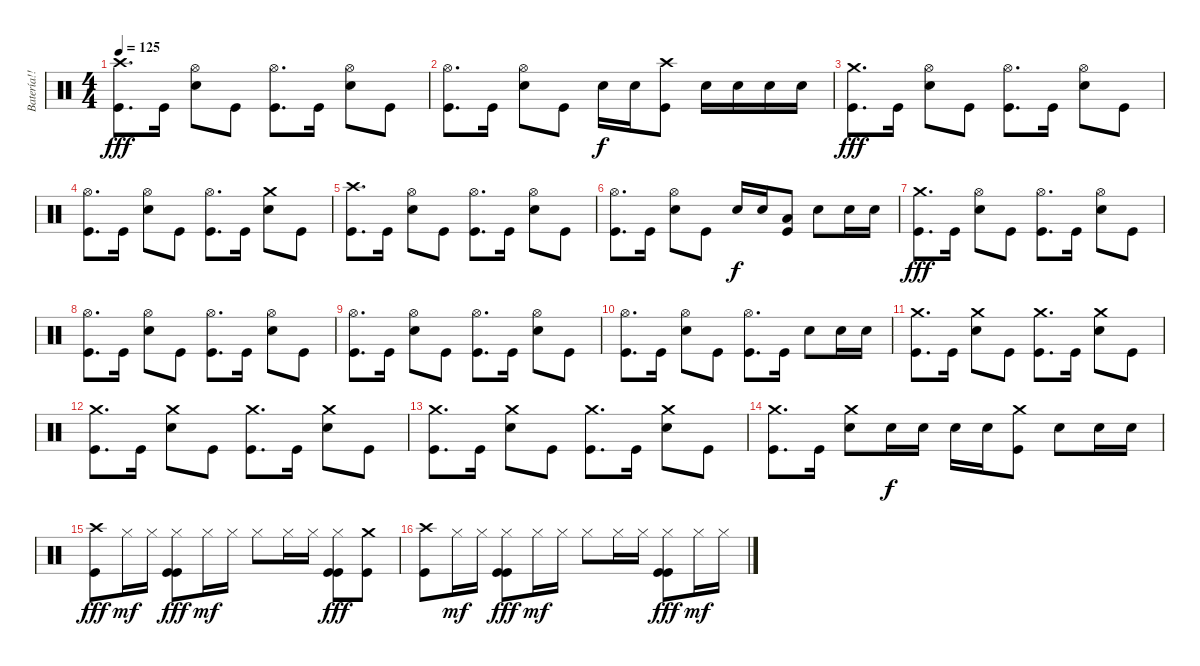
\track ("Batería!! >_<" "Batería!! ") {instrument percussion}
\staff {score}
\articulation defaults
\ts (4 4)
\tempo 125
\clef neutral
\ks c
("Crash high (hit)" "Kick (hit)").8{d dy fff} "Kick (hit)".16 ("Hi-Hat (open)" "Snare (hit) 2").8 "Kick (hit)".8 ("Hi-Hat (open)" "Kick (hit)").8{d} "Kick (hit)".16 ("Hi-Hat (open)" "Snare (hit) 2").8 "Kick (hit)".8 |
("Hi-Hat (open)" "Kick (hit)").8{d} "Kick (hit)".16 ("Hi-Hat (open)" "Snare (hit) 2").8 "Kick (hit)".8 "Snare (hit) 2".16{dy f} "Snare (hit) 2".16 ("Crash high (hit)" "Kick (hit)").8 "Snare (hit) 2".16 "Snare (hit) 2".16 "Snare (hit) 2".16 "Snare (hit) 2".16 |
("Crash medium (hit)" "Kick (hit)").8{d dy fff} "Kick (hit)".16 ("Hi-Hat (open)" "Snare (hit) 2").8 "Kick (hit)".8 ("Hi-Hat (open)" "Kick (hit)").8{d} "Kick (hit)".16 ("Hi-Hat (open)" "Snare (hit) 2").8 "Kick (hit)".8 |
("Hi-Hat (open)" "Kick (hit)").8{d} "Kick (hit)".16 ("Hi-Hat (open)" "Snare (hit) 2").8 "Kick (hit)".8 ("Hi-Hat (open)" "Kick (hit)").8{d} "Kick (hit)".16 ("Crash medium (hit)" "Snare (hit) 2").8 "Kick (hit)".8 |
("Crash high (hit)" "Kick (hit)").8{d} "Kick (hit)".16 ("Hi-Hat (open)" "Snare (hit) 2").8 "Kick (hit)".8 ("Hi-Hat (open)" "Kick (hit)").8{d} "Kick (hit)".16 ("Hi-Hat (open)" "Snare (hit) 2").8 "Kick (hit)".8 |
("Hi-Hat (open)" "Kick (hit)").8{d} "Kick (hit)".16 ("Hi-Hat (open)" "Snare (hit) 2").8 "Kick (hit)".8 "Snare (hit) 2".16{dy f} "Snare (hit) 2".16 ("Low Tom (hit)" "Kick (hit)").8 "Snare (hit) 2".8 "Snare (hit) 2".16 "Snare (hit) 2".16 |
("Crash medium (hit)" "Kick (hit)").8{d dy fff} "Kick (hit)".16 ("Hi-Hat (open)" "Snare (hit) 2").8 "Kick (hit)".8 ("Hi-Hat (open)" "Kick (hit)").8{d} "Kick (hit)".16 ("Hi-Hat (open)" "Snare (hit) 2").8 "Kick (hit)".8 |
("Hi-Hat (open)" "Kick (hit)").8{d} "Kick (hit)".16 ("Hi-Hat (open)" "Snare (hit) 2").8 "Kick (hit)".8 ("Hi-Hat (open)" "Kick (hit)").8{d} "Kick (hit)".16 ("Hi-Hat (open)" "Snare (hit) 2").8 "Kick (hit)".8 |
("Hi-Hat (open)" "Kick (hit)").8{d} "Kick (hit)".16 ("Hi-Hat (open)" "Snare (hit) 2").8 "Kick (hit)".8 ("Hi-Hat (open)" "Kick (hit)").8{d} "Kick (hit)".16 ("Hi-Hat (open)" "Snare (hit) 2").8 "Kick (hit)".8 |
("Hi-Hat (open)" "Kick (hit)").8{d} "Kick (hit)".16 ("Hi-Hat (open)" "Snare (hit) 2").8 "Kick (hit)".8 ("Hi-Hat (open)" "Kick (hit)").8{d} "Kick (hit)".16 "Snare (hit) 2".8 "Snare (hit) 2".16 "Snare (hit) 2".16 |
("Crash medium (hit)" "Kick (hit)").8{d} "Kick (hit)".16 ("Crash medium (hit)" "Snare (hit) 2").8 "Kick (hit)".8 ("Crash medium (hit)" "Kick (hit)").8{d} "Kick (hit)".16 ("Crash medium (hit)" "Snare (hit) 2").8 "Kick (hit)".8 |
("Crash medium (hit)" "Kick (hit)").8{d} "Kick (hit)".16 ("Crash medium (hit)" "Snare (hit) 2").8 "Kick (hit)".8 ("Crash medium (hit)" "Kick (hit)").8{d} "Kick (hit)".16 ("Crash medium (hit)" "Snare (hit) 2").8 "Kick (hit)".8 |
("Crash medium (hit)" "Kick (hit)").8{d} "Kick (hit)".16 ("Crash medium (hit)" "Snare (hit) 2").8 "Kick (hit)".8 ("Crash medium (hit)" "Kick (hit)").8{d} "Kick (hit)".16 ("Crash medium (hit)" "Snare (hit) 2").8 "Kick (hit)".8 |
("Crash medium (hit)" "Kick (hit)").8{d} "Kick (hit)".16 ("Crash medium (hit)" "Snare (hit) 2").8 "Snare (hit) 2".16{dy f} "Snare (hit) 2".16 "Snare (hit) 2".16 "Snare (hit) 2".16 ("Crash medium (hit)" "Kick (hit)").8 "Snare (hit) 2".8 "Snare (hit) 2".16 "Snare (hit) 2".16 |
("Crash high (hit)" "Kick (hit)").8{dy fff} "Hi-Hat (closed)".16{dy mf} "Hi-Hat (closed)".16 ("Hi-Hat (closed)" "Kick (hit)" "Kick (hit)").8{dy fff} "Hi-Hat (closed)".16{dy mf} "Hi-Hat (closed)".16 "Hi-Hat (closed)".8 "Hi-Hat (closed)".16 "Hi-Hat (closed)".16 ("Hi-Hat (closed)" "Kick (hit)" "Kick (hit)").8{dy fff} ("Crash medium (hit)" "Kick (hit)").8 |
("Crash high (hit)" "Kick (hit)").8 "Hi-Hat (closed)".16{dy mf} "Hi-Hat (closed)".16 ("Hi-Hat (closed)" "Kick (hit)" "Kick (hit)").8{dy fff} "Hi-Hat (closed)".16{dy mf} "Hi-Hat (closed)".16 "Hi-Hat (closed)".8 "Hi-Hat (closed)".16 "Hi-Hat (closed)".16 ("Hi-Hat (closed)" "Kick (hit)" "Kick (hit)").8{dy fff} "Hi-Hat (closed)".16{dy mf} "Hi-Hat (closed)".16
